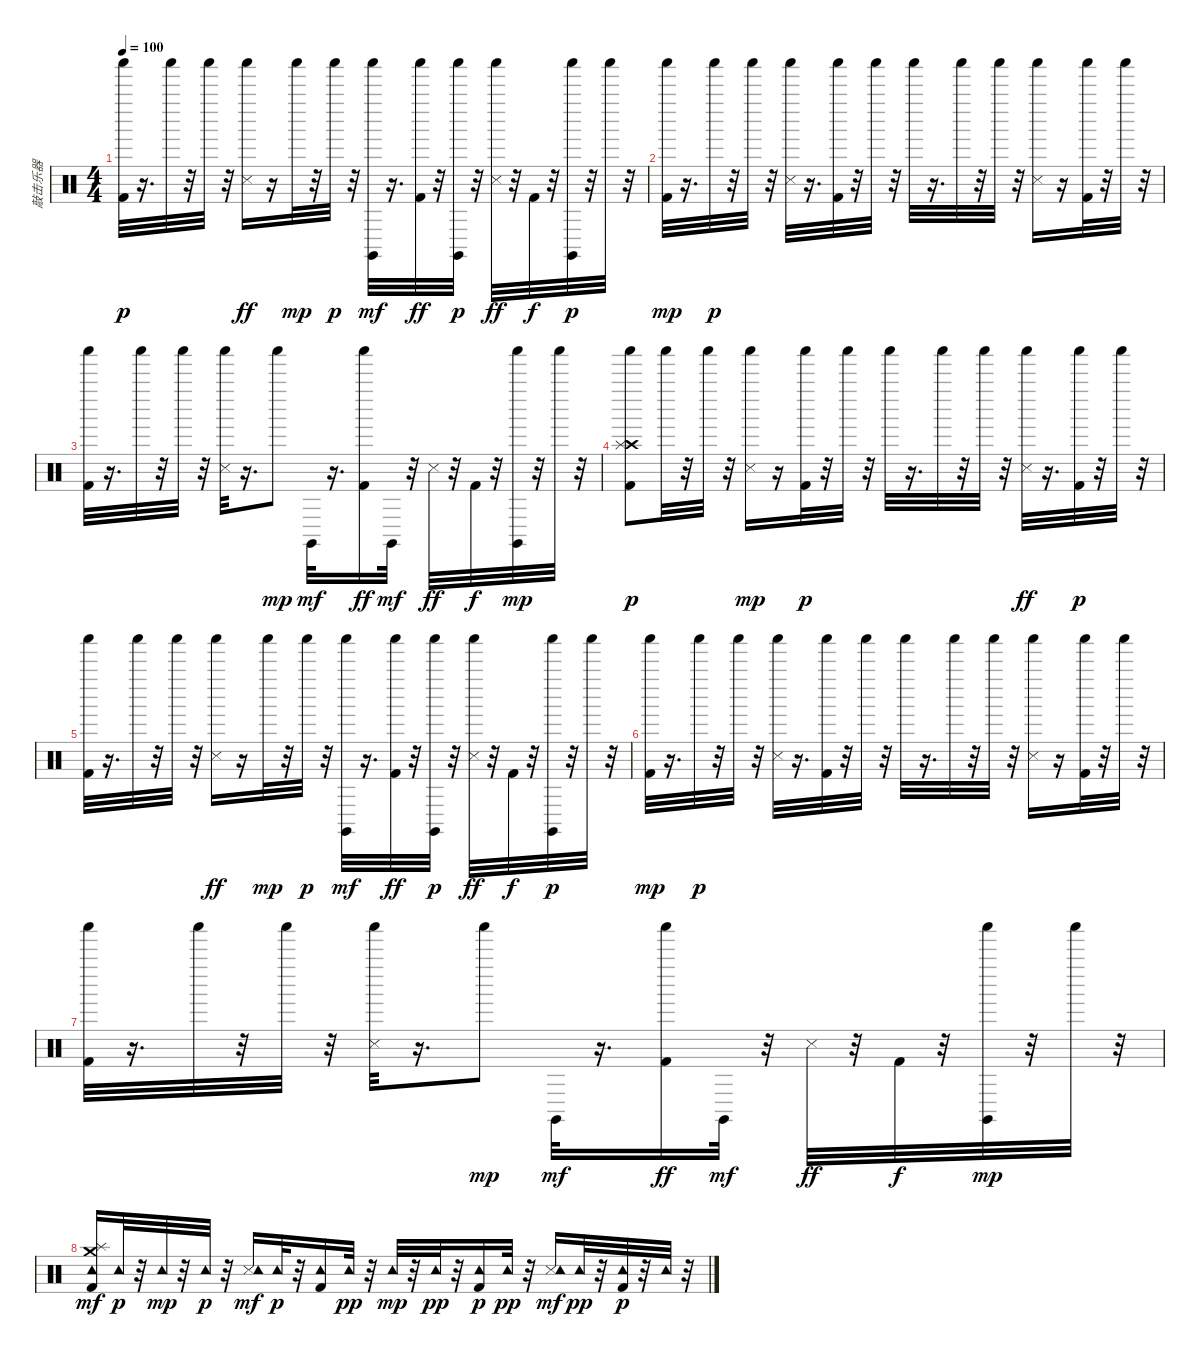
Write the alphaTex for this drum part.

\track ("敲击乐器" "敲击乐器") {instrument percussion}
\staff {score}
\articulation defaults
\ts (4 4)
\tempo 100
\clef neutral
\ks c
("Shaker (hit)" "Kick (hit) 2").32{dy p} r.16{d} "Shaker (hit)".32 r.32 "Shaker (hit)".32 r.32 ("Shaker (hit)" "Snare (side stick) 3").16{dy ff} r.16 "Shaker (hit)".32{dy mp} r.32 "Shaker (hit)".32{dy p} r.32 ("Shaker (hit)" "Claves (hit)").32{dy mf} r.16{d} ("Shaker (hit)" "Kick (hit) 2").32{dy ff} r.32 ("Claves (hit)" "Shaker (hit)").32{dy p} r.32 ("Shaker (hit)" "Snare (side stick) 3").32{dy ff} r.32 "Kick (hit) 2".32{dy f} r.32 ("Claves (hit)" "Shaker (hit)").32{dy p} r.32 "Shaker (hit)".32 r.32 |
("Kick (hit) 2" "Shaker (hit)").32{dy mp} r.16{d} "Shaker (hit)".32{dy p} r.32 "Shaker (hit)".32 r.32 ("Snare (side stick) 3" "Shaker (hit)").32 r.16{d} ("Kick (hit) 2" "Shaker (hit)").32 r.32 "Shaker (hit)".32 r.32 "Shaker (hit)".32 r.16{d} "Shaker (hit)".32 r.32 "Shaker (hit)".32 r.32 ("Snare (side stick) 3" "Shaker (hit)").16 r.16 ("Kick (hit) 2" "Shaker (hit)").32 r.32 "Shaker (hit)".32 r.32 |
("Shaker (hit)" "Kick (hit) 2").32 r.16{d} "Shaker (hit)".32 r.32 "Shaker (hit)".32 r.32 ("Snare (side stick) 3" "Shaker (hit)").32 r.16{d} "Shaker (hit)".8{dy mp} "Claves (hit)".32{dy mf} r.16{d} ("Shaker (hit)" "Kick (hit) 2").16{dy ff} "Claves (hit)".32{dy mf} r.32 "Snare (side stick) 3".32{dy ff} r.32 "Kick (hit) 2".32{dy f} r.32 ("Claves (hit)" "Shaker (hit)").32{dy mp} r.32 "Shaker (hit)".32 r.32 |
("Crash high (hit)" "Splash (hit)" "Shaker (hit)" "Kick (hit) 2").8{dy p} "Shaker (hit)".32 r.32 "Shaker (hit)".32 r.32 ("Shaker (hit)" "Snare (side stick) 3").16{dy mp} r.16 ("Kick (hit) 2" "Shaker (hit)").32{dy p} r.32 "Shaker (hit)".32 r.32 "Shaker (hit)".32 r.16{d} "Shaker (hit)".32 r.32 "Shaker (hit)".32 r.32 ("Shaker (hit)" "Snare (side stick) 3").32{dy ff} r.16{d} ("Kick (hit) 2" "Shaker (hit)").32{dy p} r.32 "Shaker (hit)".32 r.32 |
("Shaker (hit)" "Kick (hit) 2").32 r.16{d} "Shaker (hit)".32 r.32 "Shaker (hit)".32 r.32 ("Shaker (hit)" "Snare (side stick) 3").16{dy ff} r.16 "Shaker (hit)".32{dy mp} r.32 "Shaker (hit)".32{dy p} r.32 ("Shaker (hit)" "Claves (hit)").32{dy mf} r.16{d} ("Shaker (hit)" "Kick (hit) 2").32{dy ff} r.32 ("Claves (hit)" "Shaker (hit)").32{dy p} r.32 ("Shaker (hit)" "Snare (side stick) 3").32{dy ff} r.32 "Kick (hit) 2".32{dy f} r.32 ("Claves (hit)" "Shaker (hit)").32{dy p} r.32 "Shaker (hit)".32 r.32 |
("Kick (hit) 2" "Shaker (hit)").32{dy mp} r.16{d} "Shaker (hit)".32{dy p} r.32 "Shaker (hit)".32 r.32 ("Snare (side stick) 3" "Shaker (hit)").32 r.16{d} ("Kick (hit) 2" "Shaker (hit)").32 r.32 "Shaker (hit)".32 r.32 "Shaker (hit)".32 r.16{d} "Shaker (hit)".32 r.32 "Shaker (hit)".32 r.32 ("Snare (side stick) 3" "Shaker (hit)").16 r.16 ("Kick (hit) 2" "Shaker (hit)").32 r.32 "Shaker (hit)".32 r.32 |
("Shaker (hit)" "Kick (hit) 2").32 r.16{d} "Shaker (hit)".32 r.32 "Shaker (hit)".32 r.32 ("Snare (side stick) 3" "Shaker (hit)").32 r.16{d} "Shaker (hit)".8{dy mp} "Claves (hit)".32{dy mf} r.16{d} ("Shaker (hit)" "Kick (hit) 2").16{dy ff} "Claves (hit)".32{dy mf} r.32 "Snare (side stick) 3".32{dy ff} r.32 "Kick (hit) 2".32{dy f} r.32 ("Claves (hit)" "Shaker (hit)").32{dy mp} r.32 "Shaker (hit)".32 r.32 |
("Splash (hit)" "Crash medium (hit)" "Kick (hit) 2" "Tambourine (hit)").16{dy mf} "Tambourine (hit)".32{dy p} r.32 "Tambourine (hit)".32{dy mp} r.32 "Tambourine (hit)".32{dy p} r.32 ("Snare (side stick) 3" "Tambourine (hit)").16{dy mf} "Tambourine (hit)".32{dy p} r.32 ("Kick (hit) 2" "Tambourine (hit)").16 "Tambourine (hit)".32{dy pp} r.32 "Tambourine (hit)".32{dy mp} r.32 "Tambourine (hit)".32{dy pp} r.32 ("Kick (hit) 2" "Tambourine (hit)").16{dy p} "Tambourine (hit)".32{dy pp} r.32 ("Snare (side stick) 3" "Tambourine (hit)").16{dy mf} "Tambourine (hit)".32{dy pp} r.32 ("Tambourine (hit)" "Kick (hit) 2").32{dy p} r.32 "Tambourine (hit)".32 r.32
